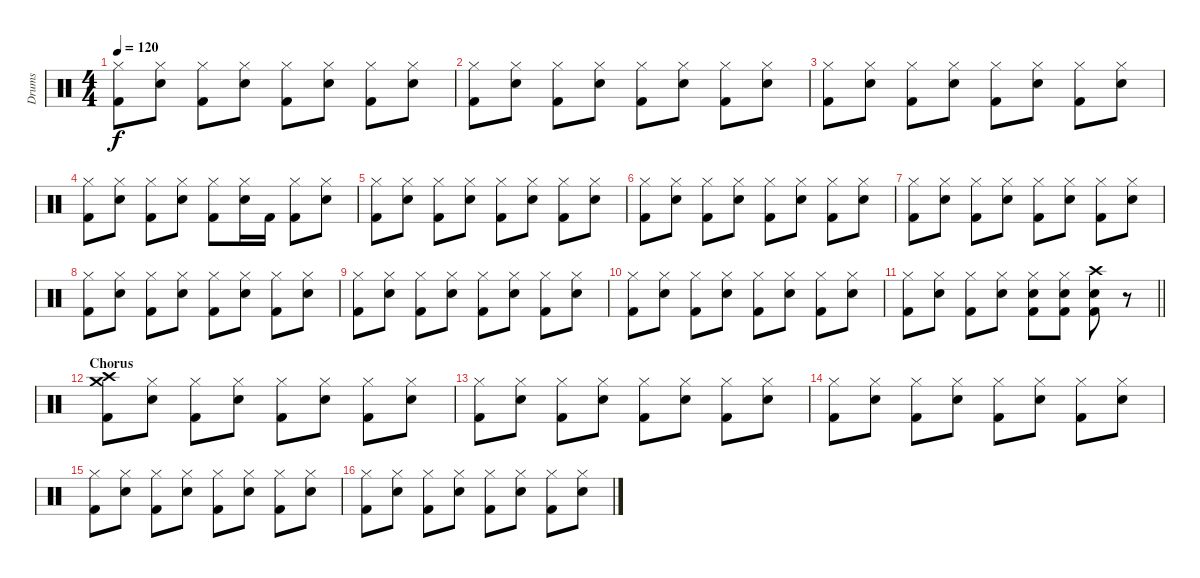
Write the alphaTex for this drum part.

\track ("Drums" "Drums") {instrument percussion}
\staff {score}
\articulation defaults
\ts (4 4)
\tempo 120
\clef neutral
\ks c
("Hi-Hat (closed)" "Kick (hit) 2").8{dy f} ("Hi-Hat (closed)" "Electric Snare (hit)").8 ("Hi-Hat (closed)" "Kick (hit) 2").8 ("Hi-Hat (closed)" "Electric Snare (hit)").8 ("Hi-Hat (closed)" "Kick (hit) 2").8 ("Hi-Hat (closed)" "Electric Snare (hit)").8 ("Hi-Hat (closed)" "Kick (hit) 2").8 ("Hi-Hat (closed)" "Electric Snare (hit)").8 |
("Hi-Hat (closed)" "Kick (hit) 2").8 ("Hi-Hat (closed)" "Electric Snare (hit)").8 ("Hi-Hat (closed)" "Kick (hit) 2").8 ("Hi-Hat (closed)" "Electric Snare (hit)").8 ("Hi-Hat (closed)" "Kick (hit) 2").8 ("Hi-Hat (closed)" "Electric Snare (hit)").8 ("Hi-Hat (closed)" "Kick (hit) 2").8 ("Hi-Hat (closed)" "Electric Snare (hit)").8 |
("Hi-Hat (closed)" "Kick (hit) 2").8 ("Hi-Hat (closed)" "Electric Snare (hit)").8 ("Hi-Hat (closed)" "Kick (hit) 2").8 ("Hi-Hat (closed)" "Electric Snare (hit)").8 ("Hi-Hat (closed)" "Kick (hit) 2").8 ("Hi-Hat (closed)" "Electric Snare (hit)").8 ("Hi-Hat (closed)" "Kick (hit) 2").8 ("Hi-Hat (closed)" "Electric Snare (hit)").8 |
("Hi-Hat (closed)" "Kick (hit) 2").8 ("Hi-Hat (closed)" "Electric Snare (hit)").8 ("Hi-Hat (closed)" "Kick (hit) 2").8 ("Hi-Hat (closed)" "Electric Snare (hit)").8 ("Hi-Hat (closed)" "Kick (hit) 2").8 ("Hi-Hat (closed)" "Electric Snare (hit)").16 "Kick (hit) 2".16 ("Hi-Hat (closed)" "Kick (hit) 2").8 ("Hi-Hat (closed)" "Electric Snare (hit)").8 |
("Hi-Hat (closed)" "Kick (hit) 2").8 ("Hi-Hat (closed)" "Electric Snare (hit)").8 ("Hi-Hat (closed)" "Kick (hit) 2").8 ("Hi-Hat (closed)" "Electric Snare (hit)").8 ("Hi-Hat (closed)" "Kick (hit) 2").8 ("Hi-Hat (closed)" "Electric Snare (hit)").8 ("Hi-Hat (closed)" "Kick (hit) 2").8 ("Hi-Hat (closed)" "Electric Snare (hit)").8 |
("Hi-Hat (closed)" "Kick (hit) 2").8 ("Hi-Hat (closed)" "Electric Snare (hit)").8 ("Hi-Hat (closed)" "Kick (hit) 2").8 ("Hi-Hat (closed)" "Electric Snare (hit)").8 ("Hi-Hat (closed)" "Kick (hit) 2").8 ("Hi-Hat (closed)" "Electric Snare (hit)").8 ("Hi-Hat (closed)" "Kick (hit) 2").8 ("Hi-Hat (closed)" "Electric Snare (hit)").8 |
("Hi-Hat (closed)" "Kick (hit) 2").8 ("Hi-Hat (closed)" "Electric Snare (hit)").8 ("Hi-Hat (closed)" "Kick (hit) 2").8 ("Hi-Hat (closed)" "Electric Snare (hit)").8 ("Hi-Hat (closed)" "Kick (hit) 2").8 ("Hi-Hat (closed)" "Electric Snare (hit)").8 ("Hi-Hat (closed)" "Kick (hit) 2").8 ("Hi-Hat (closed)" "Electric Snare (hit)").8 |
("Hi-Hat (closed)" "Kick (hit) 2").8 ("Hi-Hat (closed)" "Electric Snare (hit)").8 ("Hi-Hat (closed)" "Kick (hit) 2").8 ("Hi-Hat (closed)" "Electric Snare (hit)").8 ("Hi-Hat (closed)" "Kick (hit) 2").8 ("Hi-Hat (closed)" "Electric Snare (hit)").8 ("Hi-Hat (closed)" "Kick (hit) 2").8 ("Hi-Hat (closed)" "Electric Snare (hit)").8 |
("Hi-Hat (closed)" "Kick (hit) 2").8 ("Hi-Hat (closed)" "Electric Snare (hit)").8 ("Hi-Hat (closed)" "Kick (hit) 2").8 ("Hi-Hat (closed)" "Electric Snare (hit)").8 ("Hi-Hat (closed)" "Kick (hit) 2").8 ("Hi-Hat (closed)" "Electric Snare (hit)").8 ("Hi-Hat (closed)" "Kick (hit) 2").8 ("Hi-Hat (closed)" "Electric Snare (hit)").8 |
("Hi-Hat (closed)" "Kick (hit) 2").8 ("Hi-Hat (closed)" "Electric Snare (hit)").8 ("Hi-Hat (closed)" "Kick (hit) 2").8 ("Hi-Hat (closed)" "Electric Snare (hit)").8 ("Hi-Hat (closed)" "Kick (hit) 2").8 ("Hi-Hat (closed)" "Electric Snare (hit)").8 ("Hi-Hat (closed)" "Kick (hit) 2").8 ("Hi-Hat (closed)" "Electric Snare (hit)").8 |
\barLineRight lightlight
("Hi-Hat (closed)" "Kick (hit) 2").8 ("Hi-Hat (closed)" "Electric Snare (hit)").8 ("Hi-Hat (closed)" "Kick (hit) 2").8 ("Hi-Hat (closed)" "Electric Snare (hit)").8 ("Hi-Hat (closed)" "Electric Snare (hit)" "Kick (hit) 2").8 ("Hi-Hat (closed)" "Electric Snare (hit)" "Kick (hit) 2").8 ("Crash high (hit)" "Electric Snare (hit)" "Kick (hit) 2").8 r.8 |
\section ("" "Chorus")
("Crash high (hit)" "Crash medium (hit)" "Kick (hit) 2").8 ("Hi-Hat (closed)" "Electric Snare (hit)").8 ("Hi-Hat (closed)" "Kick (hit) 2").8 ("Hi-Hat (closed)" "Electric Snare (hit)").8 ("Hi-Hat (closed)" "Kick (hit) 2").8 ("Hi-Hat (closed)" "Electric Snare (hit)").8 ("Hi-Hat (closed)" "Kick (hit) 2").8 ("Hi-Hat (closed)" "Electric Snare (hit)").8 |
("Hi-Hat (closed)" "Kick (hit) 2").8 ("Hi-Hat (closed)" "Electric Snare (hit)").8 ("Hi-Hat (closed)" "Kick (hit) 2").8 ("Hi-Hat (closed)" "Electric Snare (hit)").8 ("Hi-Hat (closed)" "Kick (hit) 2").8 ("Hi-Hat (closed)" "Electric Snare (hit)").8 ("Hi-Hat (closed)" "Kick (hit) 2").8 ("Hi-Hat (closed)" "Electric Snare (hit)").8 |
("Hi-Hat (closed)" "Kick (hit) 2").8 ("Hi-Hat (closed)" "Electric Snare (hit)").8 ("Hi-Hat (closed)" "Kick (hit) 2").8 ("Hi-Hat (closed)" "Electric Snare (hit)").8 ("Hi-Hat (closed)" "Kick (hit) 2").8 ("Hi-Hat (closed)" "Electric Snare (hit)").8 ("Hi-Hat (closed)" "Kick (hit) 2").8 ("Hi-Hat (closed)" "Electric Snare (hit)").8 |
("Hi-Hat (closed)" "Kick (hit) 2").8 ("Hi-Hat (closed)" "Electric Snare (hit)").8 ("Hi-Hat (closed)" "Kick (hit) 2").8 ("Hi-Hat (closed)" "Electric Snare (hit)").8 ("Hi-Hat (closed)" "Kick (hit) 2").8 ("Hi-Hat (closed)" "Electric Snare (hit)").8 ("Hi-Hat (closed)" "Kick (hit) 2").8 ("Hi-Hat (closed)" "Electric Snare (hit)").8 |
("Hi-Hat (closed)" "Kick (hit) 2").8 ("Hi-Hat (closed)" "Electric Snare (hit)").8 ("Hi-Hat (closed)" "Kick (hit) 2").8 ("Hi-Hat (closed)" "Electric Snare (hit)").8 ("Hi-Hat (closed)" "Kick (hit) 2").8 ("Hi-Hat (closed)" "Electric Snare (hit)").8 ("Hi-Hat (closed)" "Kick (hit) 2").8 ("Hi-Hat (closed)" "Electric Snare (hit)").8
